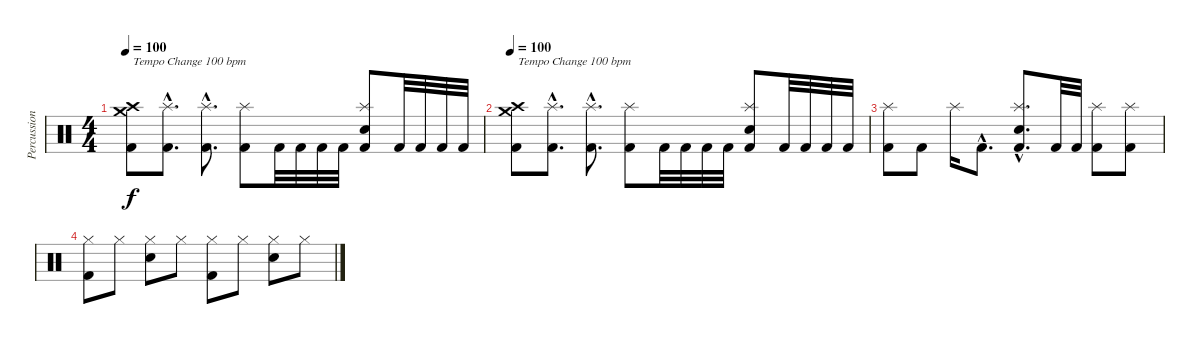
\track ("Percussion" "Percussion") {instrument percussion}
\staff {score}
\articulation defaults
\ts (4 4)
\tempo 100
\clef neutral
\ks c
("Kick (hit) 2" "Crash high (hit)" "Crash medium (hit)").8{txt "Tempo Change 100 bpm" dy f} ("Kick (hit) 2"{hac} "Splash (hit)"{hac}).8{d} ("Kick (hit) 2"{hac} "Splash (hit)"{hac}).8{d} ("Kick (hit) 2" "Splash (hit)").8 "Kick (hit) 2".32 "Kick (hit) 2".32 "Kick (hit) 2".32 "Kick (hit) 2".32 ("Kick (hit) 2" "Splash (hit)" "Snare (hit) 2").8 "Kick (hit) 2".32 "Kick (hit) 2".32 "Kick (hit) 2".32 "Kick (hit) 2".32 |
\tempo 100
("Kick (hit) 2" "Crash high (hit)" "Crash medium (hit)").8{txt "Tempo Change 100 bpm"} ("Kick (hit) 2"{hac} "Splash (hit)"{hac}).8{d} ("Kick (hit) 2"{hac} "Splash (hit)"{hac}).8{d} ("Kick (hit) 2" "Splash (hit)").8 "Kick (hit) 2".32 "Kick (hit) 2".32 "Kick (hit) 2".32 "Kick (hit) 2".32 ("Kick (hit) 2" "Splash (hit)" "Snare (hit) 2").8 "Kick (hit) 2".32 "Kick (hit) 2".32 "Kick (hit) 2".32 "Kick (hit) 2".32 |
("Kick (hit) 2" "Splash (hit)").8 "Kick (hit) 2".8 "Splash (hit)".16 "Kick (hit) 2"{hac}.8{d} ("Kick (hit) 2"{hac} "Splash (hit)"{hac} "Snare (hit) 2"{hac}).8{d} "Kick (hit) 2".32 "Kick (hit) 2".32 ("Kick (hit) 2" "Splash (hit)").8 ("Kick (hit) 2" "Splash (hit)").8 |
("Kick (hit) 2" "Hi-Hat (closed)").8 "Hi-Hat (closed)".8 ("Hi-Hat (closed)" "Snare (hit) 2").8 "Hi-Hat (closed)".8 ("Kick (hit) 2" "Hi-Hat (closed)").8 "Hi-Hat (closed)".8 ("Hi-Hat (closed)" "Snare (hit) 2").8 "Hi-Hat (closed)".8
